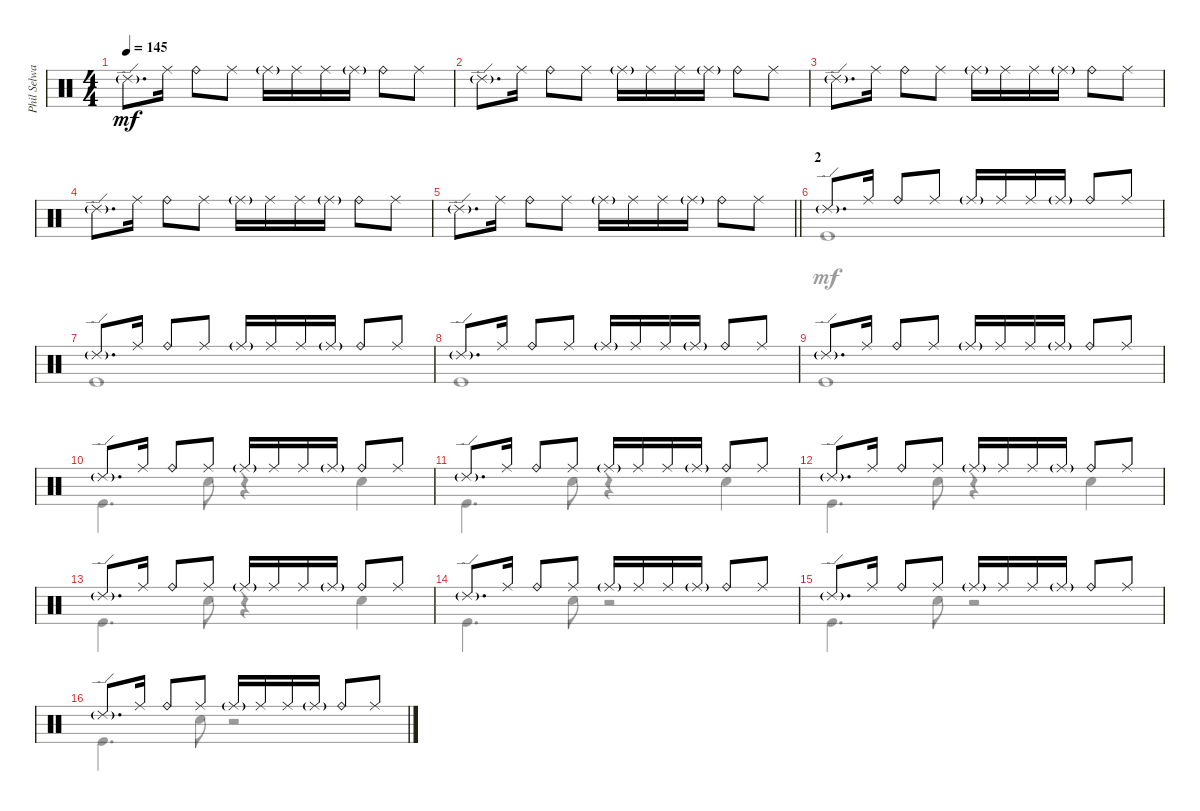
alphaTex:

\track ("Phil Selway" "Phil Selwa") {instrument percussion}
\staff {score}
\articulation defaults
\voice
\ts (4 4)
\tempo 145
\clef neutral
\ks c "Ride (edge) 2"{g}.8{d dy mf} "Ride (middle)".16 "Ride (bell)".8 "Ride (middle)".8 "Ride (middle)"{g}.16 "Ride (middle)".16 "Ride (middle)".16 "Ride (middle)"{g}.16 "Ride (bell)".8 "Ride (middle)".8
|
"Ride (edge) 2"{g}.8{d} "Ride (middle)".16 "Ride (bell)".8 "Ride (middle)".8 "Ride (middle)"{g}.16 "Ride (middle)".16 "Ride (middle)".16 "Ride (middle)"{g}.16 "Ride (bell)".8 "Ride (middle)".8 |
"Ride (edge) 2"{g}.8{d} "Ride (middle)".16 "Ride (bell)".8 "Ride (middle)".8 "Ride (middle)"{g}.16 "Ride (middle)".16 "Ride (middle)".16 "Ride (middle)"{g}.16 "Ride (bell)".8 "Ride (middle)".8 |
"Ride (edge) 2"{g}.8{d} "Ride (middle)".16 "Ride (bell)".8 "Ride (middle)".8 "Ride (middle)"{g}.16 "Ride (middle)".16 "Ride (middle)".16 "Ride (middle)"{g}.16 "Ride (bell)".8 "Ride (middle)".8 |
\barLineRight lightlight "Ride (edge) 2"{g}.8{d} "Ride (middle)".16 "Ride (bell)".8 "Ride (middle)".8 "Ride (middle)"{g}.16 "Ride (middle)".16 "Ride (middle)".16 "Ride (middle)"{g}.16 "Ride (bell)".8 "Ride (middle)".8
|
\section ("" "2")
"Ride (edge) 2"{g}.8{d} "Ride (middle)".16 "Ride (bell)".8 "Ride (middle)".8 "Ride (middle)"{g}.16 "Ride (middle)".16 "Ride (middle)".16 "Ride (middle)"{g}.16 "Ride (bell)".8 "Ride (middle)".8 |
"Ride (edge) 2"{g}.8{d} "Ride (middle)".16 "Ride (bell)".8 "Ride (middle)".8 "Ride (middle)"{g}.16 "Ride (middle)".16 "Ride (middle)".16 "Ride (middle)"{g}.16 "Ride (bell)".8 "Ride (middle)".8 |
"Ride (edge) 2"{g}.8{d} "Ride (middle)".16 "Ride (bell)".8 "Ride (middle)".8 "Ride (middle)"{g}.16 "Ride (middle)".16 "Ride (middle)".16 "Ride (middle)"{g}.16 "Ride (bell)".8 "Ride (middle)".8 |
"Ride (edge) 2"{g}.8{d} "Ride (middle)".16 "Ride (bell)".8 "Ride (middle)".8 "Ride (middle)"{g}.16 "Ride (middle)".16 "Ride (middle)".16 "Ride (middle)"{g}.16 "Ride (bell)".8 "Ride (middle)".8 |
"Ride (edge) 2"{g}.8{d} "Ride (middle)".16 "Ride (bell)".8 "Ride (middle)".8 "Ride (middle)"{g}.16 "Ride (middle)".16 "Ride (middle)".16 "Ride (middle)"{g}.16 "Ride (bell)".8 "Ride (middle)".8 |
"Ride (edge) 2"{g}.8{d} "Ride (middle)".16 "Ride (bell)".8 "Ride (middle)".8 "Ride (middle)"{g}.16 "Ride (middle)".16 "Ride (middle)".16 "Ride (middle)"{g}.16 "Ride (bell)".8 "Ride (middle)".8 |
"Ride (edge) 2"{g}.8{d} "Ride (middle)".16 "Ride (bell)".8 "Ride (middle)".8 "Ride (middle)"{g}.16 "Ride (middle)".16 "Ride (middle)".16 "Ride (middle)"{g}.16 "Ride (bell)".8 "Ride (middle)".8 |
"Ride (edge) 2"{g}.8{d} "Ride (middle)".16 "Ride (bell)".8 "Ride (middle)".8 "Ride (middle)"{g}.16 "Ride (middle)".16 "Ride (middle)".16 "Ride (middle)"{g}.16 "Ride (bell)".8 "Ride (middle)".8 |
"Ride (edge) 2"{g}.8{d} "Ride (middle)".16 "Ride (bell)".8 "Ride (middle)".8 "Ride (middle)"{g}.16 "Ride (middle)".16 "Ride (middle)".16 "Ride (middle)"{g}.16 "Ride (bell)".8 "Ride (middle)".8 |
"Ride (edge) 2"{g}.8{d} "Ride (middle)".16 "Ride (bell)".8 "Ride (middle)".8 "Ride (middle)"{g}.16 "Ride (middle)".16 "Ride (middle)".16 "Ride (middle)"{g}.16 "Ride (bell)".8 "Ride (middle)".8 |
"Ride (edge) 2"{g}.8{d} "Ride (middle)".16 "Ride (bell)".8 "Ride (middle)".8 "Ride (middle)"{g}.16 "Ride (middle)".16 "Ride (middle)".16 "Ride (middle)"{g}.16 "Ride (bell)".8 "Ride (middle)".8
\voice
\clef neutral
\ottava regular
\simile none
\ks c
|
|
|
|
\barLineRight lightlight
|
"Kick (hit)".1 |
"Kick (hit)".1 |
"Kick (hit)".1 |
"Kick (hit)".1 |
"Kick (hit)".4{d} "Snare (hit) 2".8 r.4 "Snare (hit) 2".4 |
"Kick (hit)".4{d} "Snare (hit) 2".8 r.4 "Snare (hit) 2".4 |
"Kick (hit)".4{d} "Snare (hit) 2".8 r.4 "Snare (hit) 2".4 |
"Kick (hit)".4{d} "Snare (hit) 2".8 r.4 "Snare (hit) 2".4 |
"Kick (hit)".4{d} "Snare (hit) 2".8 r.2 |
"Kick (hit)".4{d} "Snare (hit) 2".8 r.2 |
"Kick (hit)".4{d} "Snare (hit) 2".8 r.2
